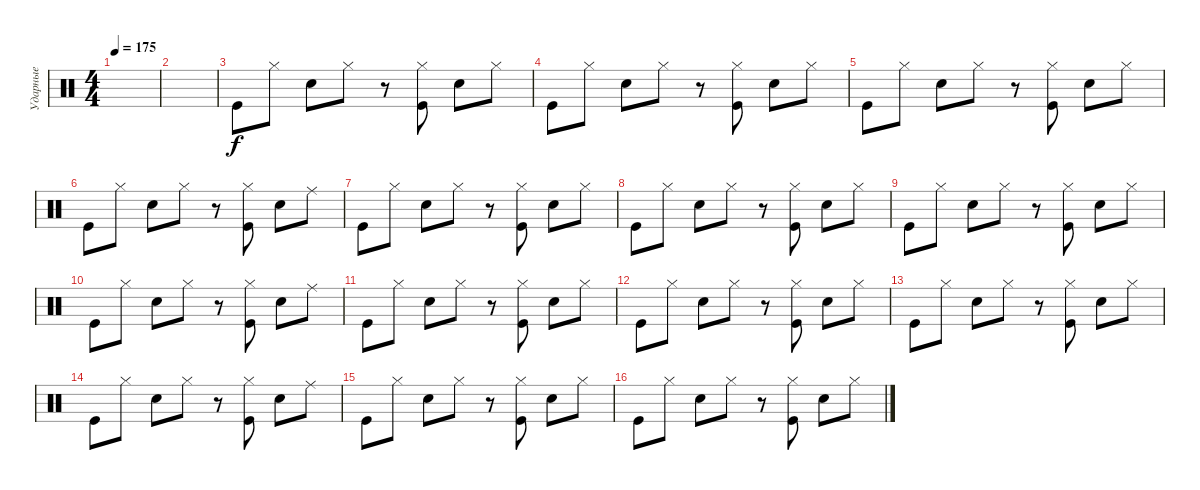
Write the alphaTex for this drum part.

\track ("Ударные" "Ударные") {instrument percussion}
\staff {score}
\articulation defaults
\ts (4 4)
\tempo 175
\clef neutral
\ks c
|
|
"Kick (hit)".8 "Hi-Hat (closed)".8 "Electric Snare (hit)".8 "Hi-Hat (closed)".8 r.8 ("Hi-Hat (closed)" "Kick (hit)").8 "Electric Snare (hit)".8 "Hi-Hat (closed)".8 |
"Kick (hit)".8 "Hi-Hat (closed)".8 "Electric Snare (hit)".8 "Hi-Hat (closed)".8 r.8 ("Hi-Hat (closed)" "Kick (hit)").8 "Electric Snare (hit)".8 "Hi-Hat (closed)".8 |
"Kick (hit)".8 "Hi-Hat (closed)".8 "Electric Snare (hit)".8 "Hi-Hat (closed)".8 r.8 ("Hi-Hat (closed)" "Kick (hit)").8 "Electric Snare (hit)".8 "Hi-Hat (closed)".8 |
"Kick (hit)".8 "Hi-Hat (closed)".8 "Electric Snare (hit)".8 "Hi-Hat (closed)".8 r.8 ("Hi-Hat (closed)" "Kick (hit)").8 "Electric Snare (hit)".8 "Ride (middle)".8 |
"Kick (hit)".8 "Hi-Hat (closed)".8 "Electric Snare (hit)".8 "Hi-Hat (closed)".8 r.8 ("Hi-Hat (closed)" "Kick (hit)").8 "Electric Snare (hit)".8 "Hi-Hat (closed)".8 |
"Kick (hit)".8 "Hi-Hat (closed)".8 "Electric Snare (hit)".8 "Hi-Hat (closed)".8 r.8 ("Hi-Hat (closed)" "Kick (hit)").8 "Electric Snare (hit)".8 "Hi-Hat (closed)".8 |
"Kick (hit)".8 "Hi-Hat (closed)".8 "Electric Snare (hit)".8 "Hi-Hat (closed)".8 r.8 ("Hi-Hat (closed)" "Kick (hit)").8 "Electric Snare (hit)".8 "Hi-Hat (closed)".8 |
"Kick (hit)".8 "Hi-Hat (closed)".8 "Electric Snare (hit)".8 "Hi-Hat (closed)".8 r.8 ("Hi-Hat (closed)" "Kick (hit)").8 "Electric Snare (hit)".8 "Ride (middle)".8 |
"Kick (hit)".8 "Hi-Hat (closed)".8 "Electric Snare (hit)".8 "Hi-Hat (closed)".8 r.8 ("Hi-Hat (closed)" "Kick (hit)").8 "Electric Snare (hit)".8 "Hi-Hat (closed)".8 |
"Kick (hit)".8 "Hi-Hat (closed)".8 "Electric Snare (hit)".8 "Hi-Hat (closed)".8 r.8 ("Hi-Hat (closed)" "Kick (hit)").8 "Electric Snare (hit)".8 "Hi-Hat (closed)".8 |
"Kick (hit)".8 "Hi-Hat (closed)".8 "Electric Snare (hit)".8 "Hi-Hat (closed)".8 r.8 ("Hi-Hat (closed)" "Kick (hit)").8 "Electric Snare (hit)".8 "Hi-Hat (closed)".8 |
"Kick (hit)".8 "Hi-Hat (closed)".8 "Electric Snare (hit)".8 "Hi-Hat (closed)".8 r.8 ("Hi-Hat (closed)" "Kick (hit)").8 "Electric Snare (hit)".8 "Ride (middle)".8 |
"Kick (hit)".8 "Hi-Hat (closed)".8 "Electric Snare (hit)".8 "Hi-Hat (closed)".8 r.8 ("Hi-Hat (closed)" "Kick (hit)").8 "Electric Snare (hit)".8 "Hi-Hat (closed)".8 |
"Kick (hit)".8 "Hi-Hat (closed)".8 "Electric Snare (hit)".8 "Hi-Hat (closed)".8 r.8 ("Hi-Hat (closed)" "Kick (hit)").8 "Electric Snare (hit)".8 "Hi-Hat (closed)".8
